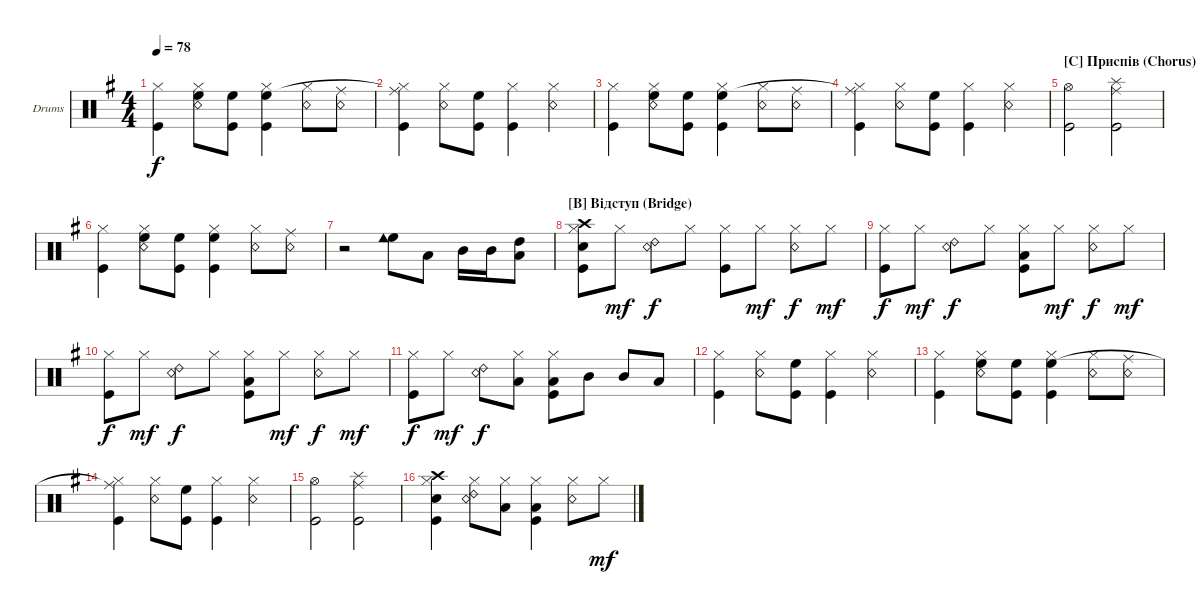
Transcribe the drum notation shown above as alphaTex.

\defaultSystemsLayout 4
\bracketExtendMode groupsimilarinstruments
\firstSystemTrackNameOrientation horizontal
\otherSystemsTrackNameOrientation horizontal
\track ("Drumkit (Darrell Sweet)" "Drums") {instrument percussion}
\staff {score}
\articulation defaults
\ts (4 4)
\tempo 78
\clef neutral
\ks eminor
("Hi-Hat (closed)" "Kick (hit)").4{dy f} ("Snare (rim shot)" "Hi-Hat (closed)" "High Floor Tom (hit)").8 ("Kick (hit)" "High Floor Tom (hit)").8 ("Hi-Hat (closed)" "Kick (hit)" "High Floor Tom (hit)").4 ("Snare (rim shot)" "Hi-Hat (closed)").8 ("Snare (rim shot)" "Ride (middle)").8 |
("Hi-Hat (closed)" "Kick (hit)" "Ride (middle)"{t}).4 ("Snare (rim shot)" "Hi-Hat (closed)").8 ("Kick (hit)" "High Floor Tom (hit)").8 ("Hi-Hat (closed)" "Kick (hit)").4 ("Snare (rim shot)" "Hi-Hat (closed)").4 |
("Hi-Hat (closed)" "Kick (hit)").4 ("Snare (rim shot)" "Hi-Hat (closed)" "High Floor Tom (hit)").8 ("Kick (hit)" "High Floor Tom (hit)").8 ("Hi-Hat (closed)" "Kick (hit)" "High Floor Tom (hit)").4 ("Snare (rim shot)" "Hi-Hat (closed)").8 ("Snare (rim shot)" "Ride (middle)").8 |
("Hi-Hat (closed)" "Kick (hit)" "Ride (middle)"{t}).4 ("Snare (rim shot)" "Hi-Hat (closed)").8 ("Kick (hit)" "High Floor Tom (hit)").8 ("Hi-Hat (closed)" "Kick (hit)").4 ("Snare (rim shot)" "Hi-Hat (closed)").4 |
\section ("C" "Приспів (Chorus)")
("Kick (hit)" "Hi-Hat (open)").2 ("Kick (hit)" "Ride (middle)" "Splash (hit)").2 |
("Hi-Hat (closed)" "Kick (hit)").4 ("Snare (rim shot)" "Hi-Hat (closed)" "High Floor Tom (hit)").8 ("Kick (hit)" "High Floor Tom (hit)").8 ("Hi-Hat (closed)" "Kick (hit)" "High Floor Tom (hit)").4 ("Snare (rim shot)" "Hi-Hat (closed)").8 ("Snare (rim shot)" "Ride (middle)").8 |
r.2 ("High Floor Tom (hit)" "Cowbell low (hit)").8 "Low Tom (hit)".8 "Mid Tom (hit)".16 "Mid Tom (hit)".16 ("High Tom (hit)" "Low Tom (hit)").8 |
\section ("B" "Відступ (Bridge)")
("Kick (hit)" "Crash high (hit)" "Snare (hit) 2" "Hi-Hat (closed)").8 "Hi-Hat (closed)".8{dy mf} ("Snare (rim shot)" "Ride (bell) 2").8{dy f} "Hi-Hat (closed)".8 ("Hi-Hat (closed)" "Kick (hit)").8 "Hi-Hat (closed)".8{dy mf} ("Snare (rim shot)" "Hi-Hat (closed)").8{dy f} "Hi-Hat (closed)".8{dy mf} |
("Hi-Hat (closed)" "Kick (hit)").8{dy f} "Hi-Hat (closed)".8{dy mf} ("Snare (rim shot)" "Ride (bell) 2").8{dy f} "Hi-Hat (closed)".8 ("Low Tom (hit)" "Hi-Hat (closed)" "Kick (hit)").8 "Hi-Hat (closed)".8{dy mf} ("Snare (rim shot)" "Hi-Hat (closed)").8{dy f} "Hi-Hat (closed)".8{dy mf} |
("Hi-Hat (closed)" "Kick (hit)").8{dy f} "Hi-Hat (closed)".8{dy mf} ("Snare (rim shot)" "Ride (bell) 2").8{dy f} "Hi-Hat (closed)".8 ("Low Tom (hit)" "Hi-Hat (closed)" "Kick (hit)").8 "Hi-Hat (closed)".8{dy mf} ("Snare (rim shot)" "Hi-Hat (closed)").8{dy f} "Hi-Hat (closed)".8{dy mf} |
("Hi-Hat (closed)" "Kick (hit)").8{dy f} "Hi-Hat (closed)".8{dy mf} ("Snare (rim shot)" "Ride (bell) 2").8{dy f} ("Low Tom (hit)" "Hi-Hat (closed)").8 ("Low Tom (hit)" "Hi-Hat (closed)" "Kick (hit)").8 "Mid Tom (hit)".8 "Mid Tom (hit)".8 "Low Tom (hit)".8 |
("Hi-Hat (closed)" "Kick (hit)").4 ("Snare (rim shot)" "Hi-Hat (closed)").8 ("Kick (hit)" "High Floor Tom (hit)").8 ("Hi-Hat (closed)" "Kick (hit)").4 ("Snare (rim shot)" "Hi-Hat (closed)").4 |
("Hi-Hat (closed)" "Kick (hit)").4 ("Snare (rim shot)" "Hi-Hat (closed)" "High Floor Tom (hit)").8 ("Kick (hit)" "High Floor Tom (hit)").8 ("Hi-Hat (closed)" "Kick (hit)" "High Floor Tom (hit)").4 ("Snare (rim shot)" "Hi-Hat (closed)").8 ("Snare (rim shot)" "Ride (middle)").8 |
("Hi-Hat (closed)" "Kick (hit)" "Ride (middle)"{t}).4 ("Snare (rim shot)" "Hi-Hat (closed)").8 ("Kick (hit)" "High Floor Tom (hit)").8 ("Hi-Hat (closed)" "Kick (hit)").4 ("Snare (rim shot)" "Hi-Hat (closed)").4 |
("Kick (hit)" "Hi-Hat (open)").2 ("Kick (hit)" "Ride (middle)" "Splash (hit)").2 |
("Kick (hit)" "Crash high (hit)" "Snare (hit) 2" "Hi-Hat (closed)").4 ("Snare (rim shot)" "Hi-Hat (closed)" "Ride (bell) 2").8 ("Low Tom (hit)" "Hi-Hat (closed)").8 ("Low Tom (hit)" "Hi-Hat (closed)" "Kick (hit)").4 ("Snare (rim shot)" "Hi-Hat (closed)").8 "Hi-Hat (closed)".8{dy mf}
